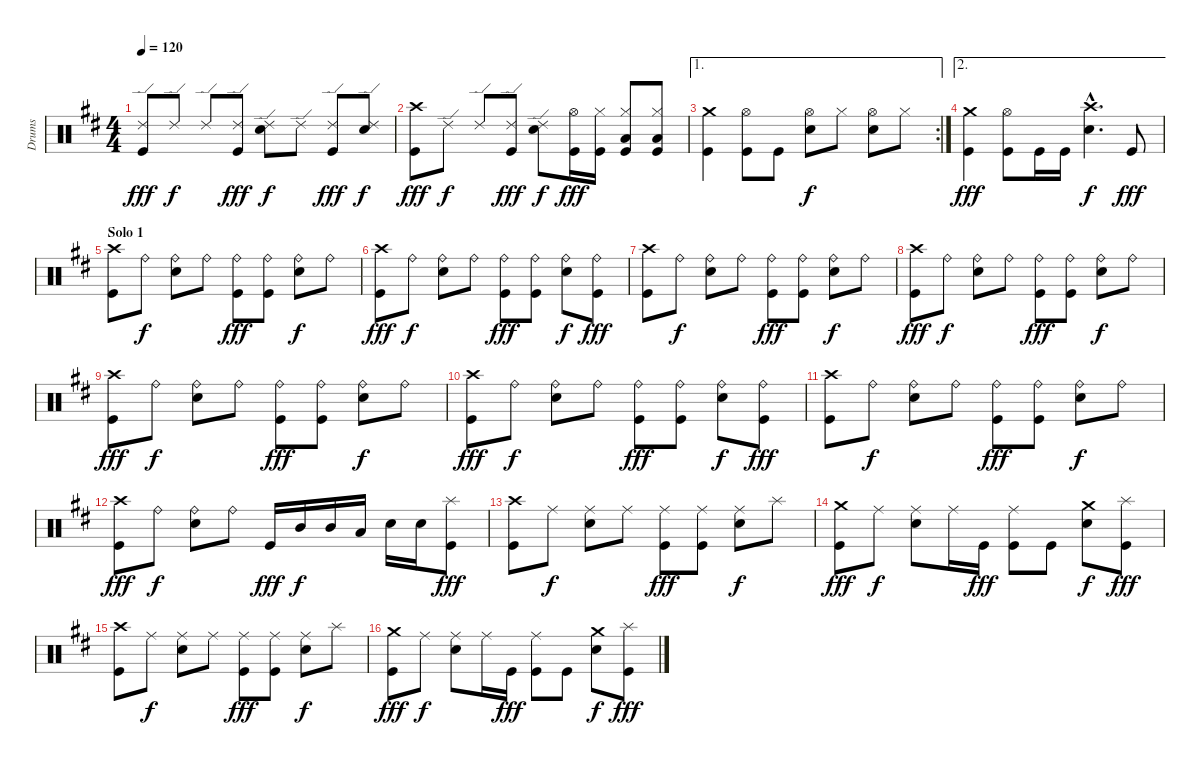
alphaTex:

\track ("Drums" "Drums") {instrument percussion}
\staff {score}
\articulation defaults
\ts (4 4)
\tempo 120
\clef neutral
\ks d
("Ride (edge) 2" "Kick (hit)").8{dy fff} "Ride (edge) 2".8{dy f} "Ride (edge) 2".8 ("Ride (edge) 2" "Kick (hit)").8{dy fff} ("Ride (edge) 2" "Snare (hit) 2").8{dy f} "Ride (edge) 2".8 ("Ride (edge) 2" "Kick (hit)").8{dy fff} ("Ride (edge) 2" "Snare (hit) 2").8{dy f} |
("Crash high (hit)" "Kick (hit)").8{dy fff} "Ride (edge) 2".8{dy f} "Ride (edge) 2".8 ("Ride (edge) 2" "Kick (hit)").8{dy fff} ("Ride (edge) 2" "Snare (hit) 2").8{dy f} ("Hi-Hat (open)" "Kick (hit)").16{dy fff} ("Hi-Hat (closed)" "Kick (hit)").16 ("Hi-Hat (closed)" "Low Floor Tom (hit)" "Kick (hit)").8 ("Hi-Hat (closed)" "Low Floor Tom (hit)" "Kick (hit)").8 |
\ae 1
\rc 2
("Crash medium (hit)" "Kick (hit)").4 ("Hi-Hat (open)" "Kick (hit)").8 "Kick (hit)".8 ("Hi-Hat (open)" "Snare (hit) 2").8{dy f} "Hi-Hat (closed)".8 ("Hi-Hat (open)" "Snare (hit) 2").8 "Hi-Hat (closed)".8 |
\ae 2
("Crash medium (hit)" "Kick (hit)").4{dy fff} ("Hi-Hat (open)" "Kick (hit)").8 "Kick (hit)".16 "Kick (hit)".16 ("Crash high (hit)"{hac} "Snare (hit) 2"{hac}).4{d dy f} "Kick (hit)".8{dy fff} |
\section ("" "Solo 1")
("Crash high (hit)" "Kick (hit)").8 "Ride (bell)".8{dy f} ("Ride (bell)" "Snare (hit) 2").8 "Ride (bell)".8 ("Ride (bell)" "Kick (hit)").8{dy fff} ("Ride (bell)" "Kick (hit)").8 ("Ride (bell)" "Snare (hit) 2").8{dy f} "Ride (bell)".8 |
("Crash high (hit)" "Kick (hit)").8{dy fff} "Ride (bell)".8{dy f} ("Ride (bell)" "Snare (hit) 2").8 "Ride (bell)".8 ("Ride (bell)" "Kick (hit)").8{dy fff} ("Ride (bell)" "Kick (hit)").8 ("Ride (bell)" "Snare (hit) 2").8{dy f} ("Ride (bell)" "Kick (hit)").8{dy fff} |
("Crash high (hit)" "Kick (hit)").8 "Ride (bell)".8{dy f} ("Ride (bell)" "Snare (hit) 2").8 "Ride (bell)".8 ("Ride (bell)" "Kick (hit)").8{dy fff} ("Ride (bell)" "Kick (hit)").8 ("Ride (bell)" "Snare (hit) 2").8{dy f} "Ride (bell)".8 |
("Crash high (hit)" "Kick (hit)").8{dy fff} "Ride (bell)".8{dy f} ("Ride (bell)" "Snare (hit) 2").8 "Ride (bell)".8 ("Ride (bell)" "Kick (hit)").8{dy fff} ("Ride (bell)" "Kick (hit)").8 ("Ride (bell)" "Snare (hit) 2").8{dy f} "Ride (bell)".8 |
("Crash high (hit)" "Kick (hit)").8{dy fff} "Ride (bell)".8{dy f} ("Ride (bell)" "Snare (hit) 2").8 "Ride (bell)".8 ("Ride (bell)" "Kick (hit)").8{dy fff} ("Ride (bell)" "Kick (hit)").8 ("Ride (bell)" "Snare (hit) 2").8{dy f} "Ride (bell)".8 |
("Crash high (hit)" "Kick (hit)").8{dy fff} "Ride (bell)".8{dy f} ("Ride (bell)" "Snare (hit) 2").8 "Ride (bell)".8 ("Ride (bell)" "Kick (hit)").8{dy fff} ("Ride (bell)" "Kick (hit)").8 ("Ride (bell)" "Snare (hit) 2").8{dy f} ("Ride (bell)" "Kick (hit)").8{dy fff} |
("Crash high (hit)" "Kick (hit)").8 "Ride (bell)".8{dy f} ("Ride (bell)" "Snare (hit) 2").8 "Ride (bell)".8 ("Ride (bell)" "Kick (hit)").8{dy fff} ("Ride (bell)" "Kick (hit)").8 ("Ride (bell)" "Snare (hit) 2").8{dy f} "Ride (bell)".8 |
("Crash high (hit)" "Kick (hit)").8{dy fff} "Ride (bell)".8{dy f} ("Ride (bell)" "Snare (hit) 2").8 "Ride (bell)".8 "Kick (hit)".16{dy fff} "Mid Tom (hit)".16{dy f} "Mid Tom (hit)".16 "Low Tom (hit)".16 "Snare (hit) 2".16 "Snare (hit) 2".16 ("Splash (hit)" "Kick (hit)").8{dy fff} |
("Crash high (hit)" "Kick (hit)").8 "Ride (middle)".8{dy f} ("Ride (middle)" "Snare (hit) 2").8 "Ride (middle)".8 ("Ride (middle)" "Kick (hit)").8{dy fff} ("Ride (middle)" "Kick (hit)").8 ("Ride (middle)" "Snare (hit) 2").8{dy f} "Splash (hit)".8 |
("Crash medium (hit)" "Kick (hit)").8{dy fff} "Ride (middle)".8{dy f} ("Ride (middle)" "Snare (hit) 2").8 "Ride (middle)".16 "Kick (hit)".16{dy fff} ("Ride (middle)" "Kick (hit)").8 "Kick (hit)".8 ("Crash medium (hit)" "Snare (hit) 2").8{dy f} ("Splash (hit)" "Kick (hit)").8{dy fff} |
("Crash high (hit)" "Kick (hit)").8 "Ride (middle)".8{dy f} ("Ride (middle)" "Snare (hit) 2").8 "Ride (middle)".8 ("Ride (middle)" "Kick (hit)").8{dy fff} ("Ride (middle)" "Kick (hit)").8 ("Ride (middle)" "Snare (hit) 2").8{dy f} "Splash (hit)".8 |
("Crash medium (hit)" "Kick (hit)").8{dy fff} "Ride (middle)".8{dy f} ("Ride (middle)" "Snare (hit) 2").8 "Ride (middle)".16 "Kick (hit)".16{dy fff} ("Ride (middle)" "Kick (hit)").8 "Kick (hit)".8 ("Crash medium (hit)" "Snare (hit) 2").8{dy f} ("Splash (hit)" "Kick (hit)").8{dy fff}
